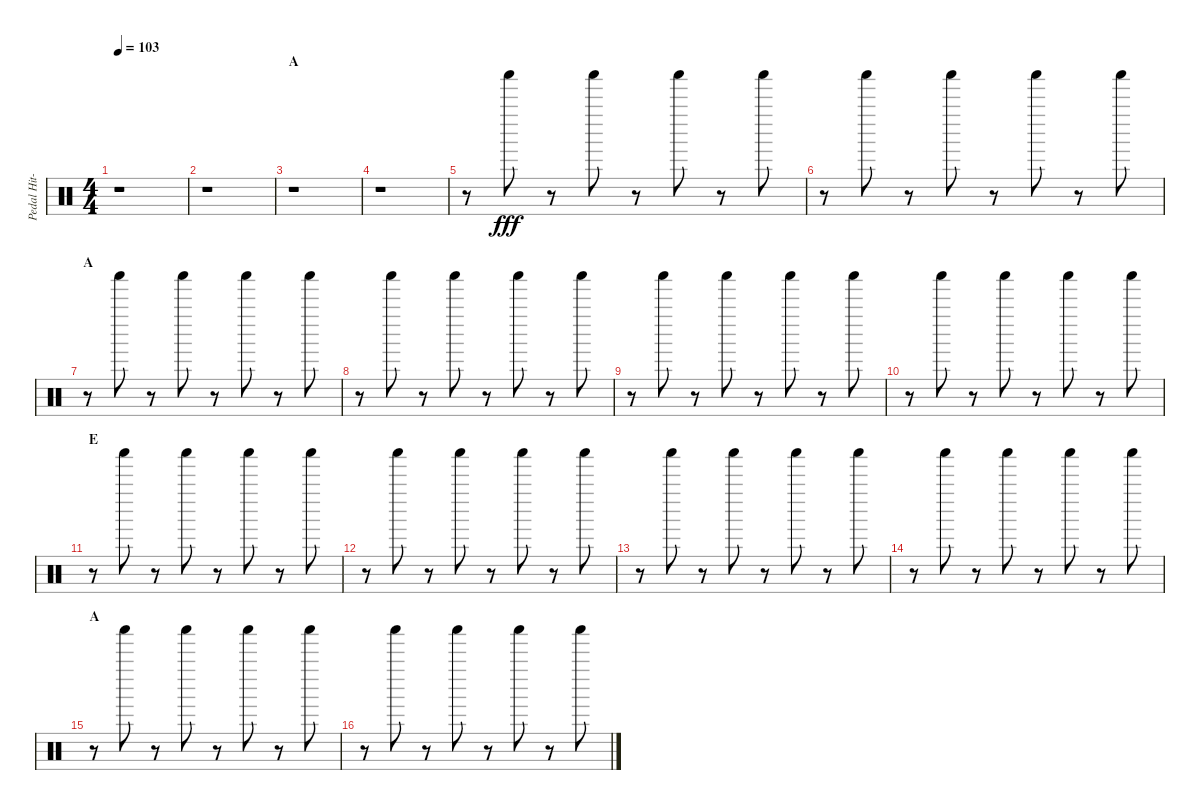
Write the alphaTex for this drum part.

\track ("Pedal Hit-Hat" "Pedal Hit-") {instrument percussion}
\staff {score}
\articulation defaults
\ts (4 4)
\tempo 103
\clef neutral
\ks c
r.1{dy fff} |
r.1 |
\section ("" "A")
r.1 |
r.1 |
r.8 "Shaker (hit)".8 r.8 "Shaker (hit)".8 r.8 "Shaker (hit)".8 r.8 "Shaker (hit)".8 |
r.8 "Shaker (hit)".8 r.8 "Shaker (hit)".8 r.8 "Shaker (hit)".8 r.8 "Shaker (hit)".8 |
\section ("" "A")
r.8 "Shaker (hit)".8 r.8 "Shaker (hit)".8 r.8 "Shaker (hit)".8 r.8 "Shaker (hit)".8 |
r.8 "Shaker (hit)".8 r.8 "Shaker (hit)".8 r.8 "Shaker (hit)".8 r.8 "Shaker (hit)".8 |
r.8 "Shaker (hit)".8 r.8 "Shaker (hit)".8 r.8 "Shaker (hit)".8 r.8 "Shaker (hit)".8 |
r.8 "Shaker (hit)".8 r.8 "Shaker (hit)".8 r.8 "Shaker (hit)".8 r.8 "Shaker (hit)".8 |
\section ("" "E")
r.8 "Shaker (hit)".8 r.8 "Shaker (hit)".8 r.8 "Shaker (hit)".8 r.8 "Shaker (hit)".8 |
r.8 "Shaker (hit)".8 r.8 "Shaker (hit)".8 r.8 "Shaker (hit)".8 r.8 "Shaker (hit)".8 |
r.8 "Shaker (hit)".8 r.8 "Shaker (hit)".8 r.8 "Shaker (hit)".8 r.8 "Shaker (hit)".8 |
r.8 "Shaker (hit)".8 r.8 "Shaker (hit)".8 r.8 "Shaker (hit)".8 r.8 "Shaker (hit)".8 |
\section ("" "A")
r.8 "Shaker (hit)".8 r.8 "Shaker (hit)".8 r.8 "Shaker (hit)".8 r.8 "Shaker (hit)".8 |
r.8 "Shaker (hit)".8 r.8 "Shaker (hit)".8 r.8 "Shaker (hit)".8 r.8 "Shaker (hit)".8
